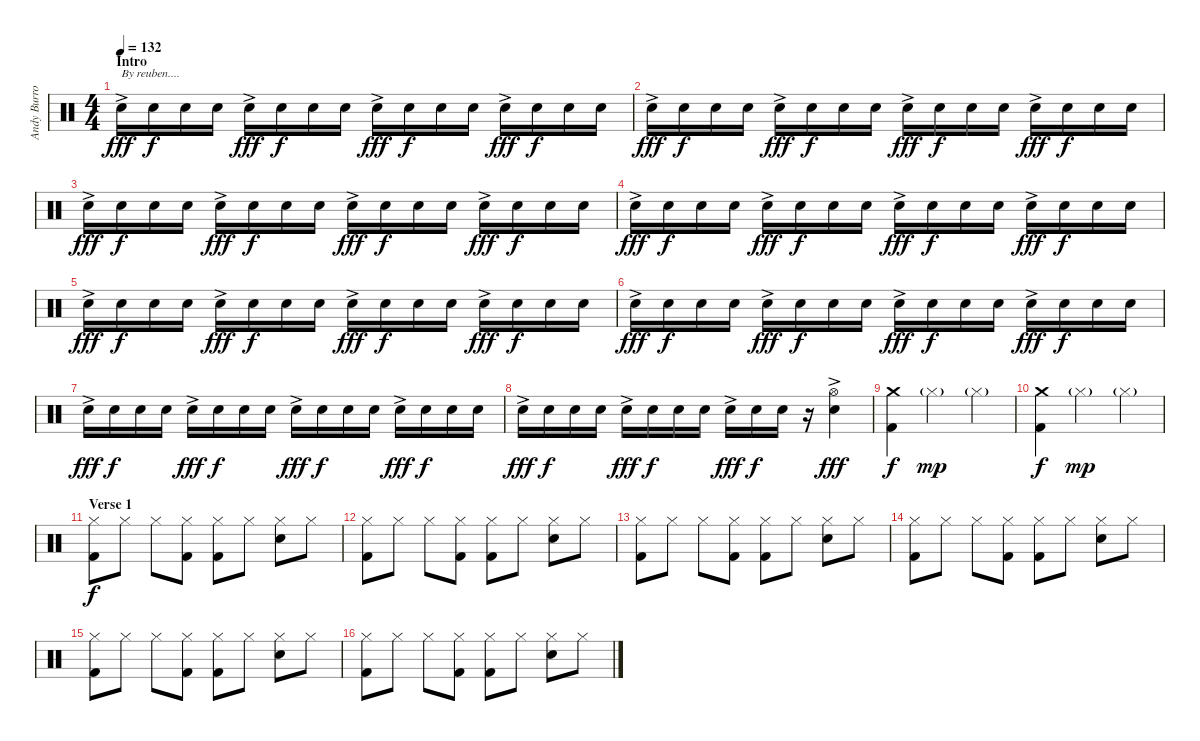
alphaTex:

\track ("Andy Burrows" "Andy Burro") {instrument percussion}
\staff {score}
\articulation defaults
\ts (4 4)
\section ("" "Intro")
\tempo 132
\clef neutral
\ks c "Snare (hit) 2"{ac}.16{txt "By reuben...." dy fff} "Snare (hit) 2".16{dy f} "Snare (hit) 2".16 "Snare (hit) 2".16 "Snare (hit) 2"{ac}.16{dy fff} "Snare (hit) 2".16{dy f} "Snare (hit) 2".16 "Snare (hit) 2".16 "Snare (hit) 2"{ac}.16{dy fff} "Snare (hit) 2".16{dy f} "Snare (hit) 2".16 "Snare (hit) 2".16 "Snare (hit) 2"{ac}.16{dy fff} "Snare (hit) 2".16{dy f} "Snare (hit) 2".16 "Snare (hit) 2".16
|
"Snare (hit) 2"{ac}.16{dy fff} "Snare (hit) 2".16{dy f} "Snare (hit) 2".16 "Snare (hit) 2".16 "Snare (hit) 2"{ac}.16{dy fff} "Snare (hit) 2".16{dy f} "Snare (hit) 2".16 "Snare (hit) 2".16 "Snare (hit) 2"{ac}.16{dy fff} "Snare (hit) 2".16{dy f} "Snare (hit) 2".16 "Snare (hit) 2".16 "Snare (hit) 2"{ac}.16{dy fff} "Snare (hit) 2".16{dy f} "Snare (hit) 2".16 "Snare (hit) 2".16 |
"Snare (hit) 2"{ac}.16{dy fff} "Snare (hit) 2".16{dy f} "Snare (hit) 2".16 "Snare (hit) 2".16 "Snare (hit) 2"{ac}.16{dy fff} "Snare (hit) 2".16{dy f} "Snare (hit) 2".16 "Snare (hit) 2".16 "Snare (hit) 2"{ac}.16{dy fff} "Snare (hit) 2".16{dy f} "Snare (hit) 2".16 "Snare (hit) 2".16 "Snare (hit) 2"{ac}.16{dy fff} "Snare (hit) 2".16{dy f} "Snare (hit) 2".16 "Snare (hit) 2".16 |
"Snare (hit) 2"{ac}.16{dy fff} "Snare (hit) 2".16{dy f} "Snare (hit) 2".16 "Snare (hit) 2".16 "Snare (hit) 2"{ac}.16{dy fff} "Snare (hit) 2".16{dy f} "Snare (hit) 2".16 "Snare (hit) 2".16 "Snare (hit) 2"{ac}.16{dy fff} "Snare (hit) 2".16{dy f} "Snare (hit) 2".16 "Snare (hit) 2".16 "Snare (hit) 2"{ac}.16{dy fff} "Snare (hit) 2".16{dy f} "Snare (hit) 2".16 "Snare (hit) 2".16 |
"Snare (hit) 2"{ac}.16{dy fff volume 13} "Snare (hit) 2".16{dy f} "Snare (hit) 2".16 "Snare (hit) 2".16 "Snare (hit) 2"{ac}.16{dy fff} "Snare (hit) 2".16{dy f} "Snare (hit) 2".16 "Snare (hit) 2".16 "Snare (hit) 2"{ac}.16{dy fff} "Snare (hit) 2".16{dy f} "Snare (hit) 2".16 "Snare (hit) 2".16 "Snare (hit) 2"{ac}.16{dy fff} "Snare (hit) 2".16{dy f} "Snare (hit) 2".16 "Snare (hit) 2".16 |
"Snare (hit) 2"{ac}.16{dy fff} "Snare (hit) 2".16{dy f} "Snare (hit) 2".16 "Snare (hit) 2".16 "Snare (hit) 2"{ac}.16{dy fff} "Snare (hit) 2".16{dy f} "Snare (hit) 2".16 "Snare (hit) 2".16 "Snare (hit) 2"{ac}.16{dy fff} "Snare (hit) 2".16{dy f} "Snare (hit) 2".16 "Snare (hit) 2".16 "Snare (hit) 2"{ac}.16{dy fff} "Snare (hit) 2".16{dy f} "Snare (hit) 2".16 "Snare (hit) 2".16 |
"Snare (hit) 2"{ac}.16{dy fff} "Snare (hit) 2".16{dy f} "Snare (hit) 2".16 "Snare (hit) 2".16 "Snare (hit) 2"{ac}.16{dy fff} "Snare (hit) 2".16{dy f} "Snare (hit) 2".16 "Snare (hit) 2".16 "Snare (hit) 2"{ac}.16{dy fff} "Snare (hit) 2".16{dy f} "Snare (hit) 2".16 "Snare (hit) 2".16 "Snare (hit) 2"{ac}.16{dy fff} "Snare (hit) 2".16{dy f} "Snare (hit) 2".16 "Snare (hit) 2".16 |
"Snare (hit) 2"{ac}.16{dy fff} "Snare (hit) 2".16{dy f} "Snare (hit) 2".16 "Snare (hit) 2".16 "Snare (hit) 2"{ac}.16{dy fff} "Snare (hit) 2".16{dy f} "Snare (hit) 2".16 "Snare (hit) 2".16 "Snare (hit) 2"{ac}.16{dy fff} "Snare (hit) 2".16{dy f} "Snare (hit) 2".16 r.16 ("Hi-Hat (open)" "Snare (hit) 2"{ac}).4{dy fff} |
("Crash medium (hit)" "Kick (hit) 2").4{dy f volume 11} "Hi-Hat (closed)"{g}.2{dy mp} "Hi-Hat (closed)"{g}.4 |
("Crash medium (hit)" "Kick (hit) 2").4{dy f} "Hi-Hat (closed)"{g}.2{dy mp} "Hi-Hat (closed)"{g}.4 |
\section ("" "Verse 1")
("Hi-Hat (closed)" "Kick (hit) 2").8{dy f} "Hi-Hat (closed)".8 "Hi-Hat (closed)".8 ("Hi-Hat (closed)" "Kick (hit) 2").8 ("Hi-Hat (closed)" "Kick (hit) 2").8 "Hi-Hat (closed)".8 ("Hi-Hat (closed)" "Electric Snare (hit)").8 "Hi-Hat (closed)".8 |
("Hi-Hat (closed)" "Kick (hit) 2").8 "Hi-Hat (closed)".8 "Hi-Hat (closed)".8 ("Hi-Hat (closed)" "Kick (hit) 2").8 ("Hi-Hat (closed)" "Kick (hit) 2").8 "Hi-Hat (closed)".8 ("Hi-Hat (closed)" "Electric Snare (hit)").8 "Hi-Hat (closed)".8 |
("Hi-Hat (closed)" "Kick (hit) 2").8 "Hi-Hat (closed)".8 "Hi-Hat (closed)".8 ("Hi-Hat (closed)" "Kick (hit) 2").8 ("Hi-Hat (closed)" "Kick (hit) 2").8 "Hi-Hat (closed)".8 ("Hi-Hat (closed)" "Electric Snare (hit)").8 "Hi-Hat (closed)".8 |
("Hi-Hat (closed)" "Kick (hit) 2").8 "Hi-Hat (closed)".8 "Hi-Hat (closed)".8 ("Hi-Hat (closed)" "Kick (hit) 2").8 ("Hi-Hat (closed)" "Kick (hit) 2").8 "Hi-Hat (closed)".8 ("Hi-Hat (closed)" "Electric Snare (hit)").8 "Hi-Hat (closed)".8 |
("Hi-Hat (closed)" "Kick (hit) 2").8 "Hi-Hat (closed)".8 "Hi-Hat (closed)".8 ("Hi-Hat (closed)" "Kick (hit) 2").8 ("Hi-Hat (closed)" "Kick (hit) 2").8 "Hi-Hat (closed)".8 ("Hi-Hat (closed)" "Electric Snare (hit)").8 "Hi-Hat (closed)".8 |
("Hi-Hat (closed)" "Kick (hit) 2").8 "Hi-Hat (closed)".8 "Hi-Hat (closed)".8 ("Hi-Hat (closed)" "Kick (hit) 2").8 ("Hi-Hat (closed)" "Kick (hit) 2").8 "Hi-Hat (closed)".8 ("Hi-Hat (closed)" "Electric Snare (hit)").8 "Hi-Hat (closed)".8
